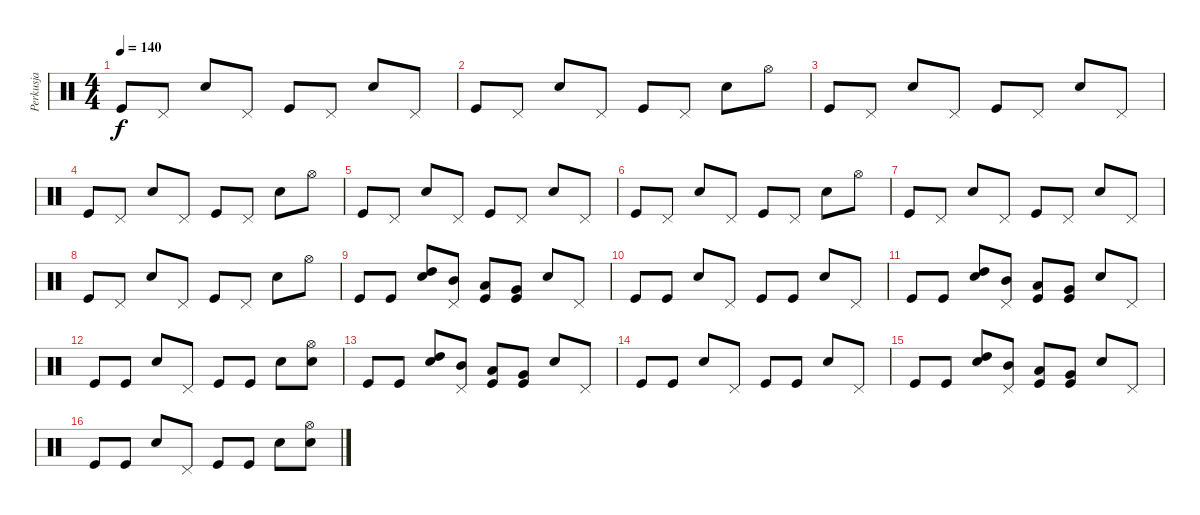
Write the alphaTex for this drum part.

\track ("Perkusja" "Perkusja") {instrument percussion}
\staff {score}
\articulation defaults
\ts (4 4)
\tempo 140
\clef neutral
\ks c "Kick (hit)".8{dy f} "Pedal Hi-Hat (hit)".8 "Electric Snare (hit)".8 "Pedal Hi-Hat (hit)".8 "Kick (hit)".8 "Pedal Hi-Hat (hit)".8 "Electric Snare (hit)".8 "Pedal Hi-Hat (hit)".8
|
"Kick (hit)".8 "Pedal Hi-Hat (hit)".8 "Electric Snare (hit)".8 "Pedal Hi-Hat (hit)".8 "Kick (hit)".8 "Pedal Hi-Hat (hit)".8 "Electric Snare (hit)".8 "Hi-Hat (open)".8 |
"Kick (hit)".8 "Pedal Hi-Hat (hit)".8 "Electric Snare (hit)".8 "Pedal Hi-Hat (hit)".8 "Kick (hit)".8 "Pedal Hi-Hat (hit)".8 "Electric Snare (hit)".8 "Pedal Hi-Hat (hit)".8 |
"Kick (hit)".8 "Pedal Hi-Hat (hit)".8 "Electric Snare (hit)".8 "Pedal Hi-Hat (hit)".8 "Kick (hit)".8 "Pedal Hi-Hat (hit)".8 "Electric Snare (hit)".8 "Hi-Hat (open)".8 |
"Kick (hit)".8 "Pedal Hi-Hat (hit)".8 "Electric Snare (hit)".8 "Pedal Hi-Hat (hit)".8 "Kick (hit)".8 "Pedal Hi-Hat (hit)".8 "Electric Snare (hit)".8 "Pedal Hi-Hat (hit)".8 |
"Kick (hit)".8 "Pedal Hi-Hat (hit)".8 "Electric Snare (hit)".8 "Pedal Hi-Hat (hit)".8 "Kick (hit)".8 "Pedal Hi-Hat (hit)".8 "Electric Snare (hit)".8 "Hi-Hat (open)".8 |
"Kick (hit)".8 "Pedal Hi-Hat (hit)".8 "Electric Snare (hit)".8 "Pedal Hi-Hat (hit)".8 "Kick (hit)".8 "Pedal Hi-Hat (hit)".8 "Electric Snare (hit)".8 "Pedal Hi-Hat (hit)".8 |
"Kick (hit)".8 "Pedal Hi-Hat (hit)".8 "Electric Snare (hit)".8 "Pedal Hi-Hat (hit)".8 "Kick (hit)".8 "Pedal Hi-Hat (hit)".8 "Electric Snare (hit)".8 "Hi-Hat (open)".8 |
"Kick (hit)".8 "Kick (hit)".8 ("Electric Snare (hit)" "High Tom (hit)").8 ("Mid Tom (hit)" "Pedal Hi-Hat (hit)").8 ("Kick (hit)" "Low Tom (hit)").8 ("Kick (hit)" "Very Low Tom (hit)").8 "Electric Snare (hit)".8 "Pedal Hi-Hat (hit)".8 |
"Kick (hit)".8 "Kick (hit)".8 "Electric Snare (hit)".8 "Pedal Hi-Hat (hit)".8 "Kick (hit)".8 "Kick (hit)".8 "Electric Snare (hit)".8 "Pedal Hi-Hat (hit)".8 |
"Kick (hit)".8 "Kick (hit)".8 ("Electric Snare (hit)" "High Tom (hit)").8 ("Mid Tom (hit)" "Pedal Hi-Hat (hit)").8 ("Kick (hit)" "Low Tom (hit)").8 ("Kick (hit)" "Very Low Tom (hit)").8 "Electric Snare (hit)".8 "Pedal Hi-Hat (hit)".8 |
"Kick (hit)".8 "Kick (hit)".8 "Electric Snare (hit)".8 "Pedal Hi-Hat (hit)".8 "Kick (hit)".8 "Kick (hit)".8 "Electric Snare (hit)".8 ("Hi-Hat (open)" "Electric Snare (hit)").8 |
"Kick (hit)".8 "Kick (hit)".8 ("Electric Snare (hit)" "High Tom (hit)").8 ("Mid Tom (hit)" "Pedal Hi-Hat (hit)").8 ("Kick (hit)" "Low Tom (hit)").8 ("Kick (hit)" "Very Low Tom (hit)").8 "Electric Snare (hit)".8 "Pedal Hi-Hat (hit)".8 |
"Kick (hit)".8 "Kick (hit)".8 "Electric Snare (hit)".8 "Pedal Hi-Hat (hit)".8 "Kick (hit)".8 "Kick (hit)".8 "Electric Snare (hit)".8 "Pedal Hi-Hat (hit)".8 |
"Kick (hit)".8 "Kick (hit)".8 ("Electric Snare (hit)" "High Tom (hit)").8 ("Mid Tom (hit)" "Pedal Hi-Hat (hit)").8 ("Kick (hit)" "Low Tom (hit)").8 ("Kick (hit)" "Very Low Tom (hit)").8 "Electric Snare (hit)".8 "Pedal Hi-Hat (hit)".8 |
"Kick (hit)".8 "Kick (hit)".8 "Electric Snare (hit)".8 "Pedal Hi-Hat (hit)".8 "Kick (hit)".8 "Kick (hit)".8 "Electric Snare (hit)".8 ("Hi-Hat (open)" "Electric Snare (hit)").8
